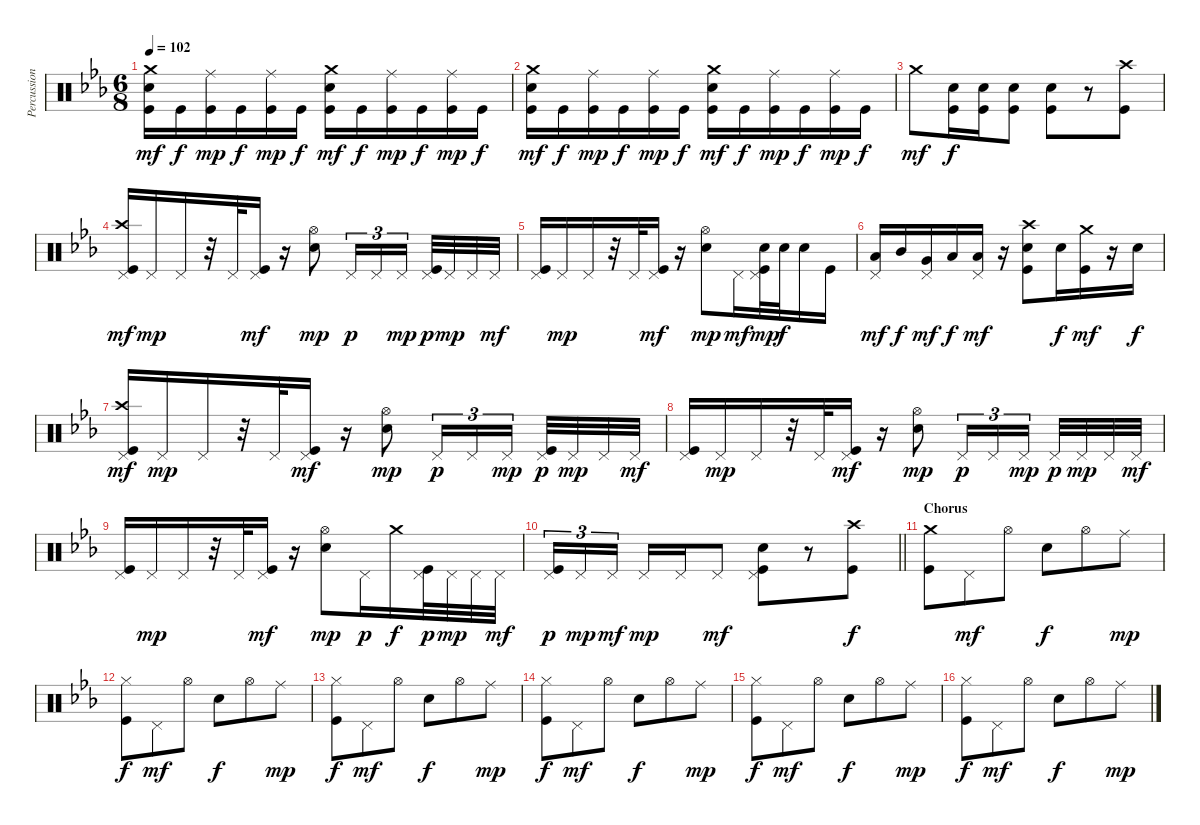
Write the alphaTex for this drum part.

\track ("Percussion" "Percussion") {instrument percussion}
\staff {score}
\articulation defaults
\ts (6 8)
\tempo 102
\clef neutral
\ks cminor
("Crash medium (hit)" "Snare (hit) 2" "Kick (hit)").16{dy mf} "Kick (hit)".16{dy f} ("Ride (middle)" "Kick (hit)").16{dy mp} "Kick (hit)".16{dy f} ("Ride (middle)" "Kick (hit)").16{dy mp} "Kick (hit)".16{dy f} ("Crash medium (hit)" "Snare (hit) 2" "Kick (hit)").16{dy mf} "Kick (hit)".16{dy f} ("Ride (middle)" "Kick (hit)").16{dy mp} "Kick (hit)".16{dy f} ("Ride (middle)" "Kick (hit)").16{dy mp} "Kick (hit)".16{dy f} |
("Crash medium (hit)" "Snare (hit) 2" "Kick (hit)").16{dy mf} "Kick (hit)".16{dy f} ("Ride (middle)" "Kick (hit)").16{dy mp} "Kick (hit)".16{dy f} ("Ride (middle)" "Kick (hit)").16{dy mp} "Kick (hit)".16{dy f} ("Crash medium (hit)" "Snare (hit) 2" "Kick (hit)").16{dy mf} "Kick (hit)".16{dy f} ("Ride (middle)" "Kick (hit)").16{dy mp} "Kick (hit)".16{dy f} ("Ride (middle)" "Kick (hit)").16{dy mp} "Kick (hit)".16{dy f} |
"Crash medium (hit)".8{dy mf} ("Snare (hit) 2" "Kick (hit)").16{dy f} ("Snare (hit) 2" "Kick (hit)").16 ("Snare (hit) 2" "Kick (hit)").8 ("Snare (hit) 2" "Kick (hit)").8 r.8 ("Crash high (hit)" "Kick (hit)").8 |
("Crash high (hit)" "Pedal Hi-Hat (hit)" "Kick (hit)").16{dy mf} "Pedal Hi-Hat (hit)".16{dy mp} "Pedal Hi-Hat (hit)".16 r.32 "Pedal Hi-Hat (hit)".32 ("Pedal Hi-Hat (hit)" "Kick (hit)").16{dy mf} r.16 ("Hi-Hat (open)" "Snare (hit) 2").8{dy mp} "Pedal Hi-Hat (hit)".16{tu (3 2) dy p} "Pedal Hi-Hat (hit)".16{tu (3 2)} "Pedal Hi-Hat (hit)".16{tu (3 2) dy mp beam splitsecondary} ("Pedal Hi-Hat (hit)" "Kick (hit)").32{dy p} "Pedal Hi-Hat (hit)".32{dy mp} "Pedal Hi-Hat (hit)".32 "Pedal Hi-Hat (hit)".32{dy mf} |
("Pedal Hi-Hat (hit)" "Kick (hit)").16 "Pedal Hi-Hat (hit)".16{dy mp} "Pedal Hi-Hat (hit)".16 r.32 "Pedal Hi-Hat (hit)".32 ("Pedal Hi-Hat (hit)" "Kick (hit)").16{dy mf} r.16 ("Hi-Hat (open)" "Snare (hit) 2").8{dy mp} "Pedal Hi-Hat (hit)".16{dy mf} ("Pedal Hi-Hat (hit)" "Snare (hit) 2" "Kick (hit)").32{dy mp} "Snare (hit) 2".32{dy f} "Snare (hit) 2".16 "Kick (hit)".16 |
("Pedal Hi-Hat (hit)" "Low Tom (hit)").16{dy mf} "Mid Tom (hit)".16{dy f} ("Pedal Hi-Hat (hit)" "Very Low Tom (hit)").16{dy mf} "Low Tom (hit)".16{dy f} ("Pedal Hi-Hat (hit)" "Low Floor Tom (hit)").16{dy mf} r.16 ("Crash high (hit)" "Snare (hit) 2" "Kick (hit)").8 "Snare (hit) 2".16{dy f} ("Crash medium (hit)" "Kick (hit)").16{dy mf} r.16 "Snare (hit) 2".16{dy f} |
("Crash high (hit)" "Pedal Hi-Hat (hit)" "Kick (hit)").16{dy mf} "Pedal Hi-Hat (hit)".16{dy mp} "Pedal Hi-Hat (hit)".16 r.32 "Pedal Hi-Hat (hit)".32 ("Pedal Hi-Hat (hit)" "Kick (hit)").16{dy mf} r.16 ("Hi-Hat (open)" "Snare (hit) 2").8{dy mp} "Pedal Hi-Hat (hit)".16{tu (3 2) dy p} "Pedal Hi-Hat (hit)".16{tu (3 2)} "Pedal Hi-Hat (hit)".16{tu (3 2) dy mp beam splitsecondary} ("Pedal Hi-Hat (hit)" "Kick (hit)").32{dy p} "Pedal Hi-Hat (hit)".32{dy mp} "Pedal Hi-Hat (hit)".32 "Pedal Hi-Hat (hit)".32{dy mf} |
("Pedal Hi-Hat (hit)" "Kick (hit)").16 "Pedal Hi-Hat (hit)".16{dy mp} "Pedal Hi-Hat (hit)".16 r.32 "Pedal Hi-Hat (hit)".32 ("Pedal Hi-Hat (hit)" "Kick (hit)").16{dy mf} r.16 ("Hi-Hat (open)" "Snare (hit) 2").8{dy mp} "Pedal Hi-Hat (hit)".16{tu (3 2) dy p} "Pedal Hi-Hat (hit)".16{tu (3 2)} "Pedal Hi-Hat (hit)".16{tu (3 2) dy mp beam splitsecondary} "Pedal Hi-Hat (hit)".32{dy p} "Pedal Hi-Hat (hit)".32{dy mp} "Pedal Hi-Hat (hit)".32 "Pedal Hi-Hat (hit)".32{dy mf} |
("Pedal Hi-Hat (hit)" "Kick (hit)").16 "Pedal Hi-Hat (hit)".16{dy mp} "Pedal Hi-Hat (hit)".16 r.32 "Pedal Hi-Hat (hit)".32 ("Pedal Hi-Hat (hit)" "Kick (hit)").16{dy mf} r.16 ("Hi-Hat (open)" "Snare (hit) 2").8{dy mp} "Pedal Hi-Hat (hit)".16{dy p} "Crash medium (hit)".16{dy f} ("Pedal Hi-Hat (hit)" "Kick (hit)").32{dy p} "Pedal Hi-Hat (hit)".32{dy mp} "Pedal Hi-Hat (hit)".32 "Pedal Hi-Hat (hit)".32{dy mf} |
\barLineRight lightlight
("Pedal Hi-Hat (hit)" "Kick (hit)").16{tu (3 2) dy p} "Pedal Hi-Hat (hit)".16{tu (3 2) dy mp} "Pedal Hi-Hat (hit)".16{tu (3 2) dy mf beam splitsecondary} "Pedal Hi-Hat (hit)".16{dy mp} "Pedal Hi-Hat (hit)".16 "Pedal Hi-Hat (hit)".8{dy mf} ("Pedal Hi-Hat (hit)" "Snare (hit) 2" "Kick (hit)").8 r.8 ("Crash high (hit)" "Kick (hit)").8{dy f} |
\section ("" "Chorus")
("Crash medium (hit)" "Kick (hit)").8 "Pedal Hi-Hat (hit)".8{dy mf} "Hi-Hat (open)".8 "Snare (hit) 2".8{dy f} "Hi-Hat (open)".8 "Ride (middle)".8{dy mp} |
("Hi-Hat (closed)" "Kick (hit)").8{dy f} "Pedal Hi-Hat (hit)".8{dy mf} "Hi-Hat (open)".8 "Snare (hit) 2".8{dy f} "Hi-Hat (open)".8 "Ride (middle)".8{dy mp} |
("Hi-Hat (closed)" "Kick (hit)").8{dy f} "Pedal Hi-Hat (hit)".8{dy mf} "Hi-Hat (open)".8 "Snare (hit) 2".8{dy f} "Hi-Hat (open)".8 "Ride (middle)".8{dy mp} |
("Hi-Hat (closed)" "Kick (hit)").8{dy f} "Pedal Hi-Hat (hit)".8{dy mf} "Hi-Hat (open)".8 "Snare (hit) 2".8{dy f} "Hi-Hat (open)".8 "Ride (middle)".8{dy mp} |
("Hi-Hat (closed)" "Kick (hit)").8{dy f} "Pedal Hi-Hat (hit)".8{dy mf} "Hi-Hat (open)".8 "Snare (hit) 2".8{dy f} "Hi-Hat (open)".8 "Ride (middle)".8{dy mp} |
("Hi-Hat (closed)" "Kick (hit)").8{dy f} "Pedal Hi-Hat (hit)".8{dy mf} "Hi-Hat (open)".8 "Snare (hit) 2".8{dy f} "Hi-Hat (open)".8 "Ride (middle)".8{dy mp}
